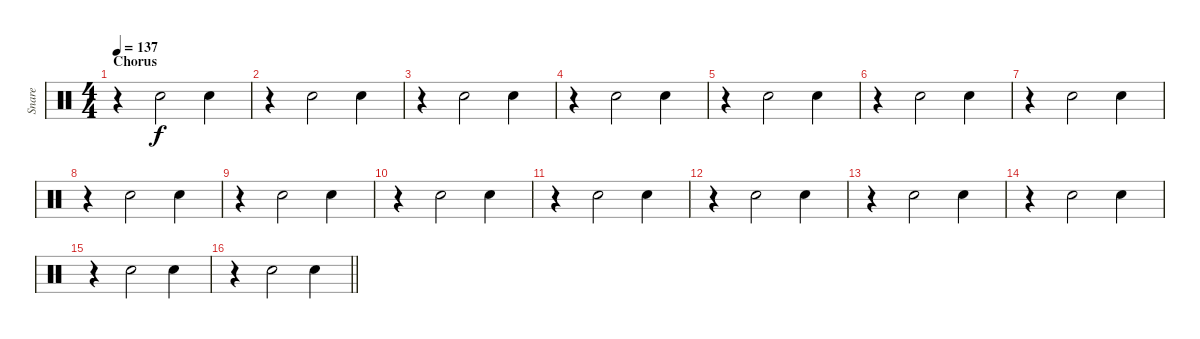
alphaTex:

\track ("Snare" "Snare") {instrument percussion}
\staff {score}
\articulation defaults
\ts (4 4)
\section ("" "Chorus")
\tempo 137
\clef neutral
\ks c
r.4{dy f} "Electric Snare (hit)".2 "Electric Snare (hit)".4 |
r.4 "Electric Snare (hit)".2 "Electric Snare (hit)".4 |
r.4 "Electric Snare (hit)".2 "Electric Snare (hit)".4 |
r.4 "Electric Snare (hit)".2 "Electric Snare (hit)".4 |
r.4 "Electric Snare (hit)".2 "Electric Snare (hit)".4 |
r.4 "Electric Snare (hit)".2 "Electric Snare (hit)".4 |
r.4 "Electric Snare (hit)".2 "Electric Snare (hit)".4 |
r.4 "Electric Snare (hit)".2 "Electric Snare (hit)".4 |
r.4 "Electric Snare (hit)".2 "Electric Snare (hit)".4 |
r.4 "Electric Snare (hit)".2 "Electric Snare (hit)".4 |
r.4 "Electric Snare (hit)".2 "Electric Snare (hit)".4 |
r.4 "Electric Snare (hit)".2 "Electric Snare (hit)".4 |
r.4 "Electric Snare (hit)".2 "Electric Snare (hit)".4 |
r.4 "Electric Snare (hit)".2 "Electric Snare (hit)".4 |
r.4 "Electric Snare (hit)".2 "Electric Snare (hit)".4 |
\barLineRight lightlight
r.4 "Electric Snare (hit)".2 "Electric Snare (hit)".4
